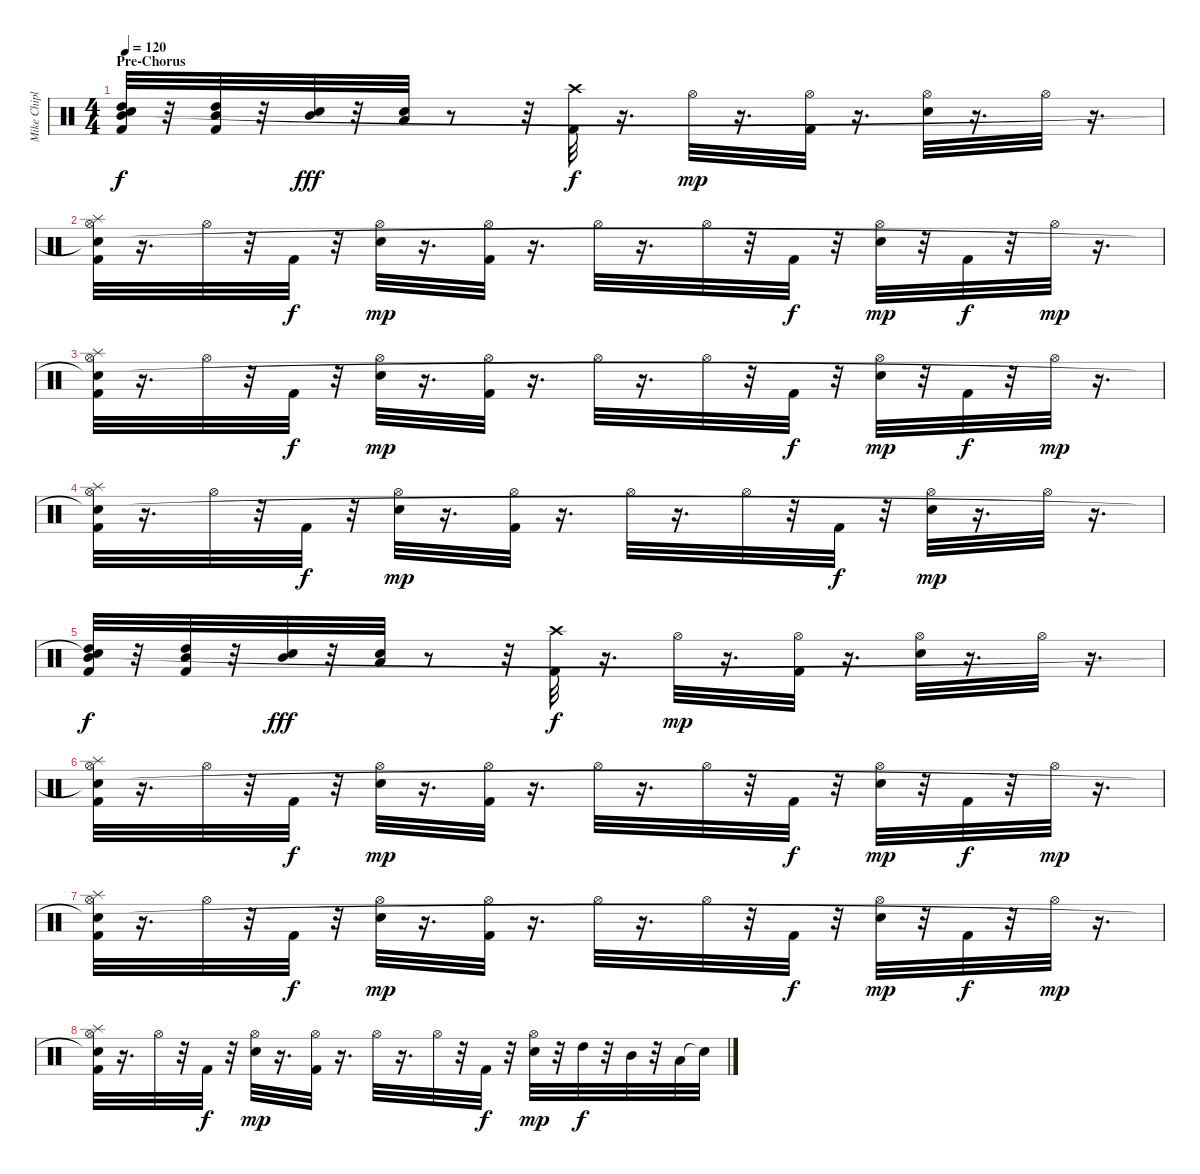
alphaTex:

\track ("Mike Chiplin - Drums" "Mike Chipl") {instrument percussion}
\staff {score}
\articulation defaults
\ts (4 4)
\section ("" "Pre-Chorus")
\tempo 120
\clef neutral
\ks c
("Kick (hit) 2" "Mid Tom (hit)" "High Tom (hit)" "Snare (hit)"{t}).32{dy f} r.32 ("Kick (hit) 2" "Mid Tom (hit)" "High Tom (hit)").32 r.32 ("Snare (hit) 2" "Mid Tom (hit)").32{dy fff} r.32 ("Snare (hit) 2" "Low Tom (hit)").32 r.8 r.32 ("Kick (hit) 2" "Crash high (hit)").32{dy f} r.16{d} "Hi-Hat (open)".32{dy mp} r.16{d} ("Kick (hit) 2" "Hi-Hat (open)").32 r.16{d} ("Snare (hit) 2" "Hi-Hat (open)").32 r.16{d} "Hi-Hat (open)".32 r.16{d} |
("Kick (hit) 2" "Hi-Hat (open)" "Splash (hit)" "Snare (hit)"{t}).32 r.16{d} "Hi-Hat (open)".32 r.32 "Kick (hit) 2".32{dy f} r.32 ("Snare (hit) 2" "Hi-Hat (open)").32{dy mp} r.16{d} ("Kick (hit) 2" "Hi-Hat (open)").32 r.16{d} "Hi-Hat (open)".32 r.16{d} "Hi-Hat (open)".32 r.32 "Kick (hit) 2".32{dy f} r.32 ("Snare (hit) 2" "Hi-Hat (open)").32{dy mp} r.32 "Kick (hit) 2".32{dy f} r.32 "Hi-Hat (open)".32{dy mp} r.16{d} |
("Kick (hit) 2" "Hi-Hat (open)" "Splash (hit)" "Snare (hit)"{t}).32 r.16{d} "Hi-Hat (open)".32 r.32 "Kick (hit) 2".32{dy f} r.32 ("Snare (hit) 2" "Hi-Hat (open)").32{dy mp} r.16{d} ("Kick (hit) 2" "Hi-Hat (open)").32 r.16{d} "Hi-Hat (open)".32 r.16{d} "Hi-Hat (open)".32 r.32 "Kick (hit) 2".32{dy f} r.32 ("Snare (hit) 2" "Hi-Hat (open)").32{dy mp} r.32 "Kick (hit) 2".32{dy f} r.32 "Hi-Hat (open)".32{dy mp} r.16{d} |
("Kick (hit) 2" "Hi-Hat (open)" "Splash (hit)" "Snare (hit)"{t}).32 r.16{d} "Hi-Hat (open)".32 r.32 "Kick (hit) 2".32{dy f} r.32 ("Snare (hit) 2" "Hi-Hat (open)").32{dy mp} r.16{d} ("Kick (hit) 2" "Hi-Hat (open)").32 r.16{d} "Hi-Hat (open)".32 r.16{d} "Hi-Hat (open)".32 r.32 "Kick (hit) 2".32{dy f} r.32 ("Snare (hit) 2" "Hi-Hat (open)").32{dy mp} r.16{d} "Hi-Hat (open)".32 r.16{d} |
("Kick (hit) 2" "Mid Tom (hit)" "High Tom (hit)" "Snare (hit)"{t}).32{dy f} r.32 ("Kick (hit) 2" "Mid Tom (hit)" "High Tom (hit)").32 r.32 ("Snare (hit) 2" "Mid Tom (hit)").32{dy fff} r.32 ("Snare (hit) 2" "Low Tom (hit)").32 r.8 r.32 ("Kick (hit) 2" "Crash high (hit)").32{dy f} r.16{d} "Hi-Hat (open)".32{dy mp} r.16{d} ("Kick (hit) 2" "Hi-Hat (open)").32 r.16{d} ("Snare (hit) 2" "Hi-Hat (open)").32 r.16{d} "Hi-Hat (open)".32 r.16{d} |
("Kick (hit) 2" "Hi-Hat (open)" "Splash (hit)" "Snare (hit)"{t}).32 r.16{d} "Hi-Hat (open)".32 r.32 "Kick (hit) 2".32{dy f} r.32 ("Snare (hit) 2" "Hi-Hat (open)").32{dy mp} r.16{d} ("Kick (hit) 2" "Hi-Hat (open)").32 r.16{d} "Hi-Hat (open)".32 r.16{d} "Hi-Hat (open)".32 r.32 "Kick (hit) 2".32{dy f} r.32 ("Snare (hit) 2" "Hi-Hat (open)").32{dy mp} r.32 "Kick (hit) 2".32{dy f} r.32 "Hi-Hat (open)".32{dy mp} r.16{d} |
("Kick (hit) 2" "Hi-Hat (open)" "Splash (hit)" "Snare (hit)"{t}).32 r.16{d} "Hi-Hat (open)".32 r.32 "Kick (hit) 2".32{dy f} r.32 ("Snare (hit) 2" "Hi-Hat (open)").32{dy mp} r.16{d} ("Kick (hit) 2" "Hi-Hat (open)").32 r.16{d} "Hi-Hat (open)".32 r.16{d} "Hi-Hat (open)".32 r.32 "Kick (hit) 2".32{dy f} r.32 ("Snare (hit) 2" "Hi-Hat (open)").32{dy mp} r.32 "Kick (hit) 2".32{dy f} r.32 "Hi-Hat (open)".32{dy mp} r.16{d} |
("Kick (hit) 2" "Hi-Hat (open)" "Splash (hit)" "Snare (hit)"{t}).32 r.16{d} "Hi-Hat (open)".32 r.32 "Kick (hit) 2".32{dy f} r.32 ("Snare (hit) 2" "Hi-Hat (open)").32{dy mp} r.16{d} ("Kick (hit) 2" "Hi-Hat (open)").32 r.16{d} "Hi-Hat (open)".32 r.16{d} "Hi-Hat (open)".32 r.32 "Kick (hit) 2".32{dy f} r.32 ("Snare (hit) 2" "Hi-Hat (open)").32{dy mp} r.32 "High Tom (hit)".32{dy f} r.32 "Mid Tom (hit)".32 r.32 "Low Tom (hit)".32 "Snare (hit)"{t}.32
